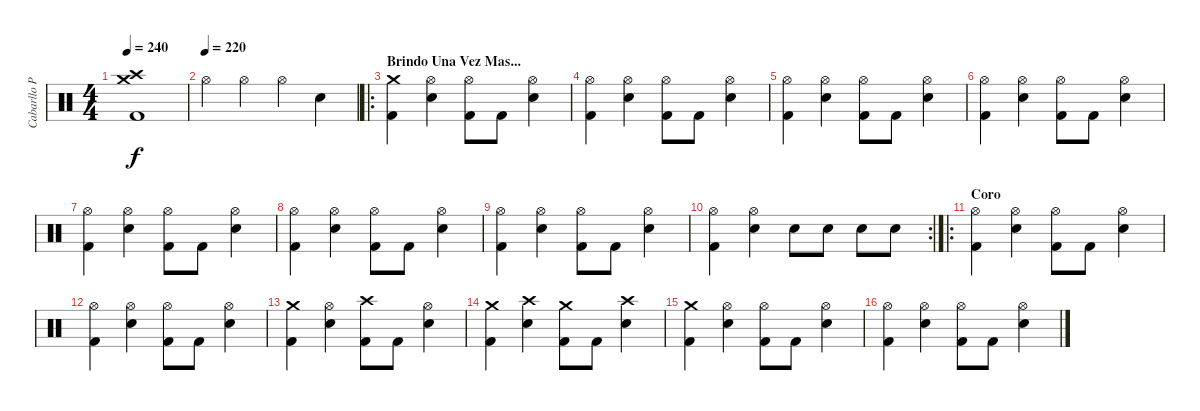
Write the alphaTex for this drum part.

\track ("Cabarllo Pepe" "Cabarllo P") {instrument percussion}
\staff {score}
\articulation defaults
\ts (4 4)
\tempo 240
\clef neutral
\ks c
("Crash medium (hit)" "Crash high (hit)" "Kick (hit) 2").1{dy f} |
\tempo (220)
"Hi-Hat (open)".4 "Hi-Hat (open)".4 "Hi-Hat (open)".4 "Electric Snare (hit)".4 |
\ro
\section ("" "Brindo Una Vez Mas...")
("Crash medium (hit)" "Kick (hit) 2").4 ("Hi-Hat (open)" "Electric Snare (hit)").4 ("Hi-Hat (open)" "Kick (hit) 2").8 "Kick (hit) 2".8 ("Hi-Hat (open)" "Electric Snare (hit)").4 |
("Hi-Hat (open)" "Kick (hit) 2").4 ("Hi-Hat (open)" "Electric Snare (hit)").4 ("Hi-Hat (open)" "Kick (hit) 2").8 "Kick (hit) 2".8 ("Hi-Hat (open)" "Electric Snare (hit)").4 |
("Hi-Hat (open)" "Kick (hit) 2").4 ("Hi-Hat (open)" "Electric Snare (hit)").4 ("Hi-Hat (open)" "Kick (hit) 2").8 "Kick (hit) 2".8 ("Hi-Hat (open)" "Electric Snare (hit)").4 |
("Hi-Hat (open)" "Kick (hit) 2").4 ("Hi-Hat (open)" "Electric Snare (hit)").4 ("Hi-Hat (open)" "Kick (hit) 2").8 "Kick (hit) 2".8 ("Hi-Hat (open)" "Electric Snare (hit)").4 |
("Hi-Hat (open)" "Kick (hit) 2").4 ("Hi-Hat (open)" "Electric Snare (hit)").4 ("Hi-Hat (open)" "Kick (hit) 2").8 "Kick (hit) 2".8 ("Hi-Hat (open)" "Electric Snare (hit)").4 |
("Hi-Hat (open)" "Kick (hit) 2").4 ("Hi-Hat (open)" "Electric Snare (hit)").4 ("Hi-Hat (open)" "Kick (hit) 2").8 "Kick (hit) 2".8 ("Hi-Hat (open)" "Electric Snare (hit)").4 |
("Hi-Hat (open)" "Kick (hit) 2").4 ("Hi-Hat (open)" "Electric Snare (hit)").4 ("Hi-Hat (open)" "Kick (hit) 2").8 "Kick (hit) 2".8 ("Hi-Hat (open)" "Electric Snare (hit)").4 |
\rc 2
("Hi-Hat (open)" "Kick (hit) 2").4 ("Hi-Hat (open)" "Electric Snare (hit)").4 "Electric Snare (hit)".8 "Electric Snare (hit)".8 "Electric Snare (hit)".8 "Electric Snare (hit)".8 |
\ro
\section ("" "Coro")
("Hi-Hat (open)" "Kick (hit) 2").4 ("Hi-Hat (open)" "Electric Snare (hit)").4 ("Hi-Hat (open)" "Kick (hit) 2").8 "Kick (hit) 2".8 ("Hi-Hat (open)" "Electric Snare (hit)").4 |
("Hi-Hat (open)" "Kick (hit) 2").4 ("Hi-Hat (open)" "Electric Snare (hit)").4 ("Hi-Hat (open)" "Kick (hit) 2").8 "Kick (hit) 2".8 ("Hi-Hat (open)" "Electric Snare (hit)").4 |
("Crash medium (hit)" "Kick (hit) 2").4 ("Hi-Hat (open)" "Electric Snare (hit)").4 ("Crash high (hit)" "Kick (hit) 2").8 "Kick (hit) 2".8 ("Hi-Hat (open)" "Electric Snare (hit)").4 |
("Crash medium (hit)" "Kick (hit) 2").4 ("Crash high (hit)" "Electric Snare (hit)").4 ("Crash medium (hit)" "Kick (hit) 2").8 "Kick (hit) 2".8 ("Crash high (hit)" "Electric Snare (hit)").4 |
("Crash medium (hit)" "Kick (hit) 2").4 ("Hi-Hat (open)" "Electric Snare (hit)").4 ("Hi-Hat (open)" "Kick (hit) 2").8 "Kick (hit) 2".8 ("Hi-Hat (open)" "Electric Snare (hit)").4 |
("Hi-Hat (open)" "Kick (hit) 2").4 ("Hi-Hat (open)" "Electric Snare (hit)").4 ("Hi-Hat (open)" "Kick (hit) 2").8 "Kick (hit) 2".8 ("Hi-Hat (open)" "Electric Snare (hit)").4
